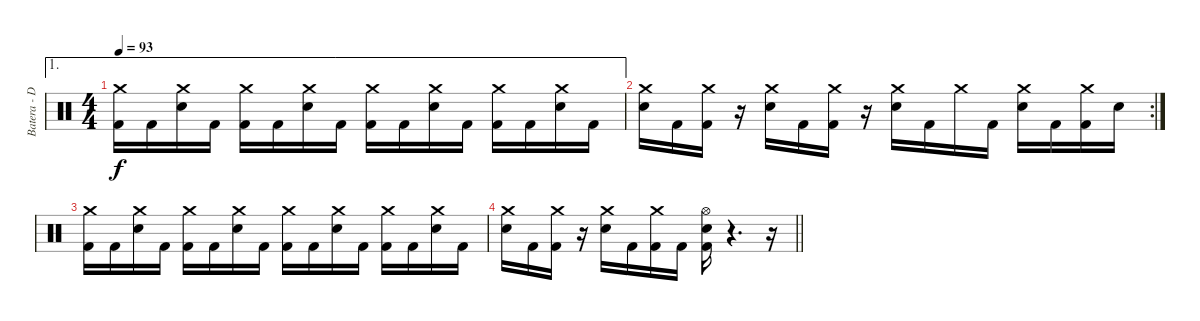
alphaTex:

\track ("Batera - Daniel" "Batera - D") {instrument percussion}
\staff {score}
\articulation defaults
\ae 1
\ts (4 4)
\tempo 93
\clef neutral
\ks c
("Crash medium (hit)" "Kick (hit) 2").16{dy f} "Kick (hit) 2".16 ("Crash medium (hit)" "Electric Snare (hit)").16 "Kick (hit) 2".16 ("Crash medium (hit)" "Kick (hit) 2").16 "Kick (hit) 2".16 ("Crash medium (hit)" "Electric Snare (hit)").16 "Kick (hit) 2".16 ("Crash medium (hit)" "Kick (hit) 2").16 "Kick (hit) 2".16 ("Crash medium (hit)" "Electric Snare (hit)").16 "Kick (hit) 2".16 ("Crash medium (hit)" "Kick (hit) 2").16 "Kick (hit) 2".16 ("Crash medium (hit)" "Electric Snare (hit)").16 "Kick (hit) 2".16 |
\rc 2
("Crash medium (hit)" "Electric Snare (hit)").16 "Kick (hit) 2".16 ("Crash medium (hit)" "Kick (hit) 2").16 r.16 ("Crash medium (hit)" "Electric Snare (hit)").16 "Kick (hit) 2".16 ("Crash medium (hit)" "Kick (hit) 2").16 r.16 ("Crash medium (hit)" "Electric Snare (hit)").16 "Kick (hit) 2".16 "Crash medium (hit)".16 "Kick (hit) 2".16 ("Crash medium (hit)" "Electric Snare (hit)").16 "Kick (hit) 2".16 ("Crash medium (hit)" "Kick (hit) 2").16 "Electric Snare (hit)".16 |
("Crash medium (hit)" "Kick (hit) 2").16 "Kick (hit) 2".16 ("Crash medium (hit)" "Electric Snare (hit)").16 "Kick (hit) 2".16 ("Crash medium (hit)" "Kick (hit) 2").16 "Kick (hit) 2".16 ("Crash medium (hit)" "Electric Snare (hit)").16 "Kick (hit) 2".16 ("Crash medium (hit)" "Kick (hit) 2").16 "Kick (hit) 2".16 ("Crash medium (hit)" "Electric Snare (hit)").16 "Kick (hit) 2".16 ("Crash medium (hit)" "Kick (hit) 2").16 "Kick (hit) 2".16 ("Crash medium (hit)" "Electric Snare (hit)").16 "Kick (hit) 2".16 |
\barLineRight lightlight
("Crash medium (hit)" "Electric Snare (hit)").16 "Kick (hit) 2".16 ("Crash medium (hit)" "Kick (hit) 2").16 r.16 ("Crash medium (hit)" "Electric Snare (hit)").16 "Kick (hit) 2".16 ("Crash medium (hit)" "Kick (hit) 2").16 "Kick (hit) 2".16 ("Hi-Hat (open)" "Electric Snare (hit)" "Kick (hit) 2").16 r.4{d} r.16
